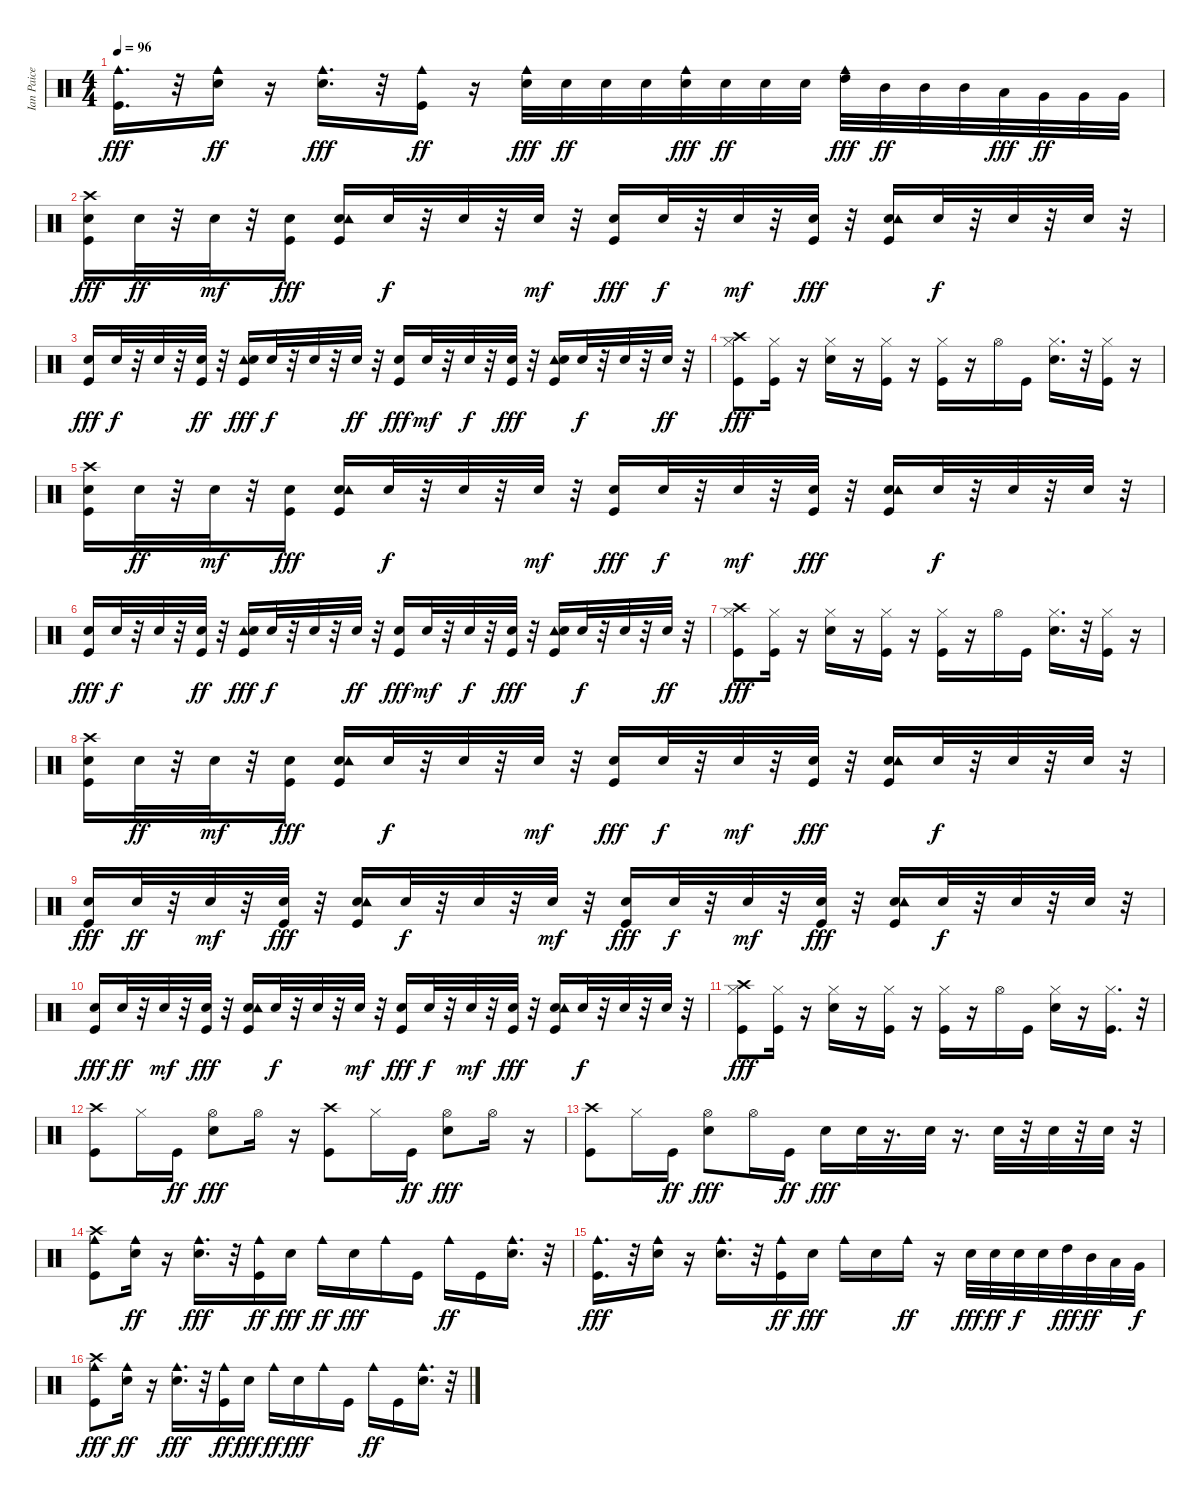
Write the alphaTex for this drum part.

\track ("Ian Paice" "Ian Paice") {instrument percussion}
\staff {score}
\articulation defaults
\ts (4 4)
\tempo 96
\clef neutral
\ks c
("Cowbell medium (hit)" "Kick (hit)").16{d dy fff} r.32 ("Snare (hit) 2" "Cowbell medium (hit)").16{dy ff} r.16 ("Cowbell medium (hit)" "Snare (hit) 2").16{d dy fff} r.32 ("Kick (hit)" "Cowbell medium (hit)").16{dy ff} r.16 ("Cowbell medium (hit)" "Snare (hit) 2").32{dy fff} "Snare (hit) 2".32{dy ff} "Snare (hit) 2".32 "Snare (hit) 2".32 ("Cowbell medium (hit)" "Snare (hit) 2").32{dy fff} "Snare (hit) 2".32{dy ff} "Snare (hit) 2".32 "Snare (hit) 2".32 ("Cowbell medium (hit)" "High Tom (hit)").32{dy fff} "Mid Tom (hit)".32{dy ff} "Mid Tom (hit)".32 "Mid Tom (hit)".32 "Low Tom (hit)".32{dy fff} "Very Low Tom (hit)".32{dy ff} "Very Low Tom (hit)".32 "Very Low Tom (hit)".32 |
("Snare (hit) 2" "Crash high (hit)" "Kick (hit)").16{dy fff} "Snare (hit) 2".32{dy ff} r.32 "Snare (hit) 2".32{dy mf} r.32 ("Kick (hit)" "Snare (hit) 2").16{dy fff} ("Snare (hit) 2" "Kick (hit)" "Tambourine (hit)").16 "Snare (hit) 2".32{dy f} r.32 "Snare (hit) 2".32 r.32 "Snare (hit) 2".32{dy mf} r.32 ("Snare (hit) 2" "Kick (hit)").16{dy fff} "Snare (hit) 2".32{dy f} r.32 "Snare (hit) 2".32{dy mf} r.32 ("Kick (hit)" "Snare (hit) 2").32{dy fff} r.32 ("Snare (hit) 2" "Kick (hit)" "Tambourine (hit)").16 "Snare (hit) 2".32{dy f} r.32 "Snare (hit) 2".32 r.32 "Snare (hit) 2".32 r.32 |
("Snare (hit) 2" "Kick (hit)").16{dy fff} "Snare (hit) 2".32{dy f} r.32 "Snare (hit) 2".32 r.32 ("Kick (hit)" "Snare (hit) 2").32{dy ff} r.32 ("Tambourine (hit)" "Snare (hit) 2" "Kick (hit)").16{dy fff} "Snare (hit) 2".32{dy f} r.32 "Snare (hit) 2".32 r.32 "Snare (hit) 2".32{dy ff} r.32 ("Snare (hit) 2" "Kick (hit)").16{dy fff} "Snare (hit) 2".32{dy mf} r.32 "Snare (hit) 2".32{dy f} r.32 ("Kick (hit)" "Snare (hit) 2").32{dy fff} r.32 ("Tambourine (hit)" "Snare (hit) 2" "Kick (hit)").16 "Snare (hit) 2".32{dy f} r.32 "Snare (hit) 2".32 r.32 "Snare (hit) 2".32{dy ff} r.32 |
("Kick (hit)" "Hi-Hat (closed)" "Crash high (hit)").8{dy fff} ("Hi-Hat (closed)" "Kick (hit)").16 r.16 ("Hi-Hat (closed)" "Snare (hit) 2").16 r.16 ("Hi-Hat (closed)" "Kick (hit)").16 r.16 ("Hi-Hat (closed)" "Kick (hit)").16 r.16 "Hi-Hat (open)".16 "Kick (hit)".16 ("Hi-Hat (closed)" "Snare (hit) 2").16{d} r.32 ("Hi-Hat (closed)" "Kick (hit)").16 r.16 |
("Snare (hit) 2" "Crash high (hit)" "Kick (hit)").16 "Snare (hit) 2".32{dy ff} r.32 "Snare (hit) 2".32{dy mf} r.32 ("Kick (hit)" "Snare (hit) 2").16{dy fff} ("Snare (hit) 2" "Kick (hit)" "Tambourine (hit)").16 "Snare (hit) 2".32{dy f} r.32 "Snare (hit) 2".32 r.32 "Snare (hit) 2".32{dy mf} r.32 ("Snare (hit) 2" "Kick (hit)").16{dy fff} "Snare (hit) 2".32{dy f} r.32 "Snare (hit) 2".32{dy mf} r.32 ("Kick (hit)" "Snare (hit) 2").32{dy fff} r.32 ("Snare (hit) 2" "Kick (hit)" "Tambourine (hit)").16 "Snare (hit) 2".32{dy f} r.32 "Snare (hit) 2".32 r.32 "Snare (hit) 2".32 r.32 |
("Snare (hit) 2" "Kick (hit)").16{dy fff} "Snare (hit) 2".32{dy f} r.32 "Snare (hit) 2".32 r.32 ("Kick (hit)" "Snare (hit) 2").32{dy ff} r.32 ("Tambourine (hit)" "Snare (hit) 2" "Kick (hit)").16{dy fff} "Snare (hit) 2".32{dy f} r.32 "Snare (hit) 2".32 r.32 "Snare (hit) 2".32{dy ff} r.32 ("Snare (hit) 2" "Kick (hit)").16{dy fff} "Snare (hit) 2".32{dy mf} r.32 "Snare (hit) 2".32{dy f} r.32 ("Kick (hit)" "Snare (hit) 2").32{dy fff} r.32 ("Tambourine (hit)" "Snare (hit) 2" "Kick (hit)").16 "Snare (hit) 2".32{dy f} r.32 "Snare (hit) 2".32 r.32 "Snare (hit) 2".32{dy ff} r.32 |
("Kick (hit)" "Hi-Hat (closed)" "Crash high (hit)").8{dy fff} ("Hi-Hat (closed)" "Kick (hit)").16 r.16 ("Hi-Hat (closed)" "Snare (hit) 2").16 r.16 ("Hi-Hat (closed)" "Kick (hit)").16 r.16 ("Hi-Hat (closed)" "Kick (hit)").16 r.16 "Hi-Hat (open)".16 "Kick (hit)".16 ("Hi-Hat (closed)" "Snare (hit) 2").16{d} r.32 ("Hi-Hat (closed)" "Kick (hit)").16 r.16 |
("Snare (hit) 2" "Crash high (hit)" "Kick (hit)").16 "Snare (hit) 2".32{dy ff} r.32 "Snare (hit) 2".32{dy mf} r.32 ("Kick (hit)" "Snare (hit) 2").16{dy fff} ("Snare (hit) 2" "Kick (hit)" "Tambourine (hit)").16 "Snare (hit) 2".32{dy f} r.32 "Snare (hit) 2".32 r.32 "Snare (hit) 2".32{dy mf} r.32 ("Snare (hit) 2" "Kick (hit)").16{dy fff} "Snare (hit) 2".32{dy f} r.32 "Snare (hit) 2".32{dy mf} r.32 ("Kick (hit)" "Snare (hit) 2").32{dy fff} r.32 ("Snare (hit) 2" "Kick (hit)" "Tambourine (hit)").16 "Snare (hit) 2".32{dy f} r.32 "Snare (hit) 2".32 r.32 "Snare (hit) 2".32 r.32 |
("Snare (hit) 2" "Kick (hit)").16{dy fff} "Snare (hit) 2".32{dy ff} r.32 "Snare (hit) 2".32{dy mf} r.32 ("Kick (hit)" "Snare (hit) 2").32{dy fff} r.32 ("Snare (hit) 2" "Kick (hit)" "Tambourine (hit)").16 "Snare (hit) 2".32{dy f} r.32 "Snare (hit) 2".32 r.32 "Snare (hit) 2".32{dy mf} r.32 ("Snare (hit) 2" "Kick (hit)").16{dy fff} "Snare (hit) 2".32{dy f} r.32 "Snare (hit) 2".32{dy mf} r.32 ("Kick (hit)" "Snare (hit) 2").32{dy fff} r.32 ("Snare (hit) 2" "Kick (hit)" "Tambourine (hit)").16 "Snare (hit) 2".32{dy f} r.32 "Snare (hit) 2".32 r.32 "Snare (hit) 2".32 r.32 |
("Snare (hit) 2" "Kick (hit)").16{dy fff} "Snare (hit) 2".32{dy ff} r.32 "Snare (hit) 2".32{dy mf} r.32 ("Kick (hit)" "Snare (hit) 2").32{dy fff} r.32 ("Snare (hit) 2" "Kick (hit)" "Tambourine (hit)").16 "Snare (hit) 2".32{dy f} r.32 "Snare (hit) 2".32 r.32 "Snare (hit) 2".32{dy mf} r.32 ("Snare (hit) 2" "Kick (hit)").16{dy fff} "Snare (hit) 2".32{dy f} r.32 "Snare (hit) 2".32{dy mf} r.32 ("Kick (hit)" "Snare (hit) 2").32{dy fff} r.32 ("Snare (hit) 2" "Kick (hit)" "Tambourine (hit)").16 "Snare (hit) 2".32{dy f} r.32 "Snare (hit) 2".32 r.32 "Snare (hit) 2".32 r.32 |
("Kick (hit)" "Hi-Hat (closed)" "Crash high (hit)").8{dy fff} ("Hi-Hat (closed)" "Kick (hit)").16 r.16 ("Hi-Hat (closed)" "Snare (hit) 2").16 r.16 ("Hi-Hat (closed)" "Kick (hit)").16 r.16 ("Hi-Hat (closed)" "Kick (hit)").16 r.16 "Hi-Hat (open)".16 "Kick (hit)".16 ("Hi-Hat (closed)" "Snare (hit) 2").16 r.16 ("Hi-Hat (closed)" "Kick (hit)").16{d} r.32 |
("Kick (hit)" "Crash high (hit)").8 "Hi-Hat (closed)".16 "Kick (hit)".16{dy ff} ("Snare (hit) 2" "Hi-Hat (open)").8{dy fff} "Hi-Hat (open)".16 r.16 ("Kick (hit)" "Crash high (hit)").8 "Hi-Hat (closed)".16 "Kick (hit)".16{dy ff} ("Snare (hit) 2" "Hi-Hat (open)").8{dy fff} "Hi-Hat (open)".16 r.16 |
("Crash high (hit)" "Kick (hit)").8 "Hi-Hat (closed)".16 "Kick (hit)".16{dy ff} ("Hi-Hat (open)" "Snare (hit) 2").8{dy fff} "Hi-Hat (open)".16 "Kick (hit)".16{dy ff} "Snare (hit) 2".16{dy fff} "Snare (hit) 2".32 r.16{d} "Snare (hit) 2".32 r.16{d} "Snare (hit) 2".32 r.32 "Snare (hit) 2".32 r.32 "Snare (hit) 2".32 r.32 |
("Cowbell medium (hit)" "Kick (hit)" "Crash high (hit)").8 ("Snare (hit) 2" "Cowbell medium (hit)").16{dy ff} r.16 ("Cowbell medium (hit)" "Snare (hit) 2").16{d dy fff} r.32 ("Kick (hit)" "Cowbell medium (hit)").16{dy ff} "Snare (hit) 2".16{dy fff} "Cowbell medium (hit)".16{dy ff} "Snare (hit) 2".16{dy fff} "Cowbell medium (hit)".16 "Kick (hit)".16 "Cowbell medium (hit)".16{dy ff} "Kick (hit)".16 ("Snare (hit) 2" "Cowbell medium (hit)").16{d} r.32 |
("Cowbell medium (hit)" "Kick (hit)").16{d dy fff} r.32 ("Snare (hit) 2" "Cowbell medium (hit)").16 r.16 ("Cowbell medium (hit)" "Snare (hit) 2").16{d} r.32 ("Kick (hit)" "Cowbell medium (hit)").16{dy ff} "Snare (hit) 2".16{dy fff} "Cowbell medium (hit)".16 "Snare (hit) 2".16 "Cowbell medium (hit)".16{dy ff} r.16 "Snare (hit) 2".32{dy fff} "Snare (hit) 2".32{dy ff} "Snare (hit) 2".32{dy f} "Snare (hit) 2".32 "High Tom (hit)".32{dy fff} "Mid Tom (hit)".32{dy ff} "Low Tom (hit)".32 "Very Low Tom (hit)".32{dy f} |
("Cowbell medium (hit)" "Kick (hit)" "Crash high (hit)").8{dy fff} ("Snare (hit) 2" "Cowbell medium (hit)").16{dy ff} r.16 ("Cowbell medium (hit)" "Snare (hit) 2").16{d dy fff} r.32 ("Kick (hit)" "Cowbell medium (hit)").16{dy ff} "Snare (hit) 2".16{dy fff} "Cowbell medium (hit)".16{dy ff} "Snare (hit) 2".16{dy fff} "Cowbell medium (hit)".16 "Kick (hit)".16 "Cowbell medium (hit)".16{dy ff} "Kick (hit)".16 ("Snare (hit) 2" "Cowbell medium (hit)").16{d} r.32
